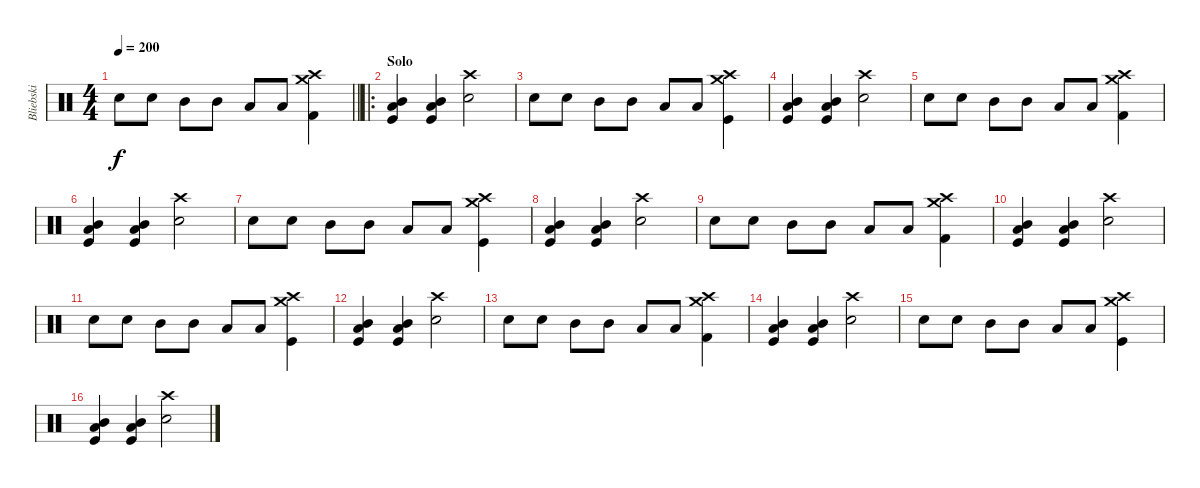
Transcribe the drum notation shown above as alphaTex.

\track ("Bliebski" "Bliebski") {instrument percussion}
\staff {score}
\articulation defaults
\ts (4 4)
\tempo 200
\clef neutral
\barLineRight lightlight
\ks c "Snare (hit) 2".8{dy f} "Snare (hit) 2".8 "Mid Tom (hit)".8 "Mid Tom (hit)".8 "Low Tom (hit)".8 "Low Tom (hit)".8
("Kick (hit) 2" "Crash medium (hit)" "Crash high (hit)").4 |
\ro
\section ("" "Solo")
("Kick (hit)" "Low Tom (hit)" "Mid Tom (hit)").4 ("Kick (hit)" "Low Tom (hit)" "Mid Tom (hit)").4 ("Crash high (hit)" "Snare (hit) 2").2 |
"Snare (hit) 2".8 "Snare (hit) 2".8 "Mid Tom (hit)".8 "Mid Tom (hit)".8 "Low Tom (hit)".8 "Low Tom (hit)".8 ("Kick (hit)" "Crash medium (hit)" "Crash high (hit)").4 |
("Kick (hit)" "Low Tom (hit)" "Mid Tom (hit)").4 ("Kick (hit)" "Low Tom (hit)" "Mid Tom (hit)").4 ("Crash high (hit)" "Snare (hit) 2").2 |
"Snare (hit) 2".8 "Snare (hit) 2".8 "Mid Tom (hit)".8 "Mid Tom (hit)".8 "Low Tom (hit)".8 "Low Tom (hit)".8 ("Kick (hit) 2" "Crash medium (hit)" "Crash high (hit)").4 |
("Kick (hit)" "Low Tom (hit)" "Mid Tom (hit)").4 ("Kick (hit)" "Low Tom (hit)" "Mid Tom (hit)").4 ("Crash high (hit)" "Snare (hit) 2").2 |
"Snare (hit) 2".8 "Snare (hit) 2".8 "Mid Tom (hit)".8 "Mid Tom (hit)".8 "Low Tom (hit)".8 "Low Tom (hit)".8 ("Kick (hit)" "Crash medium (hit)" "Crash high (hit)").4 |
("Kick (hit)" "Low Tom (hit)" "Mid Tom (hit)").4 ("Kick (hit)" "Low Tom (hit)" "Mid Tom (hit)").4 ("Crash high (hit)" "Snare (hit) 2").2 |
"Snare (hit) 2".8 "Snare (hit) 2".8 "Mid Tom (hit)".8 "Mid Tom (hit)".8 "Low Tom (hit)".8 "Low Tom (hit)".8 ("Kick (hit) 2" "Crash medium (hit)" "Crash high (hit)").4 |
("Kick (hit)" "Low Tom (hit)" "Mid Tom (hit)").4 ("Kick (hit)" "Low Tom (hit)" "Mid Tom (hit)").4 ("Crash high (hit)" "Snare (hit) 2").2 |
"Snare (hit) 2".8 "Snare (hit) 2".8 "Mid Tom (hit)".8 "Mid Tom (hit)".8 "Low Tom (hit)".8 "Low Tom (hit)".8 ("Kick (hit)" "Crash medium (hit)" "Crash high (hit)").4 |
("Kick (hit)" "Low Tom (hit)" "Mid Tom (hit)").4 ("Kick (hit)" "Low Tom (hit)" "Mid Tom (hit)").4 ("Crash high (hit)" "Snare (hit) 2").2 |
"Snare (hit) 2".8 "Snare (hit) 2".8 "Mid Tom (hit)".8 "Mid Tom (hit)".8 "Low Tom (hit)".8 "Low Tom (hit)".8 ("Kick (hit) 2" "Crash medium (hit)" "Crash high (hit)").4 |
("Kick (hit)" "Low Tom (hit)" "Mid Tom (hit)").4 ("Kick (hit)" "Low Tom (hit)" "Mid Tom (hit)").4 ("Crash high (hit)" "Snare (hit) 2").2 |
"Snare (hit) 2".8 "Snare (hit) 2".8 "Mid Tom (hit)".8 "Mid Tom (hit)".8 "Low Tom (hit)".8 "Low Tom (hit)".8 ("Kick (hit)" "Crash medium (hit)" "Crash high (hit)").4 |
("Kick (hit)" "Low Tom (hit)" "Mid Tom (hit)").4 ("Kick (hit)" "Low Tom (hit)" "Mid Tom (hit)").4 ("Crash high (hit)" "Snare (hit) 2").2
